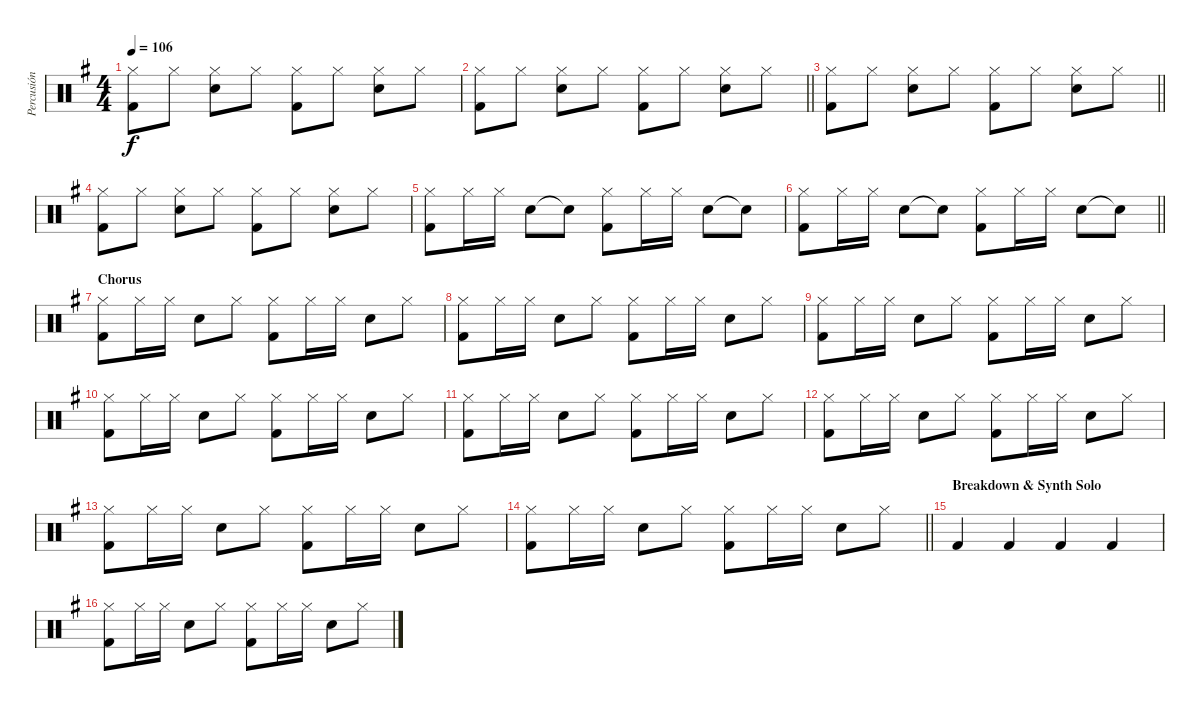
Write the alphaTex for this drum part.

\track ("Percusión" "Percusión") {instrument percussion}
\staff {score}
\articulation defaults
\ts (4 4)
\tempo 106
\clef neutral
\ks g
("Kick (hit) 2" "Hi-Hat (closed)").8{dy f} "Hi-Hat (closed)".8 ("Electric Snare (hit)" "Hi-Hat (closed)").8 "Hi-Hat (closed)".8 ("Kick (hit) 2" "Hi-Hat (closed)").8 "Hi-Hat (closed)".8 ("Electric Snare (hit)" "Hi-Hat (closed)").8 "Hi-Hat (closed)".8 |
\barLineRight lightlight
("Kick (hit) 2" "Hi-Hat (closed)").8 "Hi-Hat (closed)".8 ("Electric Snare (hit)" "Hi-Hat (closed)").8 "Hi-Hat (closed)".8 ("Kick (hit) 2" "Hi-Hat (closed)").8 "Hi-Hat (closed)".8 ("Electric Snare (hit)" "Hi-Hat (closed)").8 "Hi-Hat (closed)".8 |
\barLineRight lightlight
("Kick (hit) 2" "Hi-Hat (closed)").8 "Hi-Hat (closed)".8 ("Electric Snare (hit)" "Hi-Hat (closed)").8 "Hi-Hat (closed)".8 ("Kick (hit) 2" "Hi-Hat (closed)").8 "Hi-Hat (closed)".8 ("Electric Snare (hit)" "Hi-Hat (closed)").8 "Hi-Hat (closed)".8 |
("Kick (hit) 2" "Hi-Hat (closed)").8 "Hi-Hat (closed)".8 ("Electric Snare (hit)" "Hi-Hat (closed)").8 "Hi-Hat (closed)".8 ("Kick (hit) 2" "Hi-Hat (closed)").8 "Hi-Hat (closed)".8 ("Electric Snare (hit)" "Hi-Hat (closed)").8 "Hi-Hat (closed)".8 |
("Kick (hit) 2" "Hi-Hat (closed)").8 "Hi-Hat (closed)".16 "Hi-Hat (closed)".16 "Electric Snare (hit)".8 "Electric Snare (hit)"{t}.8 ("Kick (hit) 2" "Hi-Hat (closed)").8 "Hi-Hat (closed)".16 "Hi-Hat (closed)".16 "Electric Snare (hit)".8 "Electric Snare (hit)"{t}.8 |
\barLineRight lightlight
("Kick (hit) 2" "Hi-Hat (closed)").8 "Hi-Hat (closed)".16 "Hi-Hat (closed)".16 "Electric Snare (hit)".8 "Electric Snare (hit)"{t}.8 ("Kick (hit) 2" "Hi-Hat (closed)").8 "Hi-Hat (closed)".16 "Hi-Hat (closed)".16 "Electric Snare (hit)".8 "Electric Snare (hit)"{t}.8 |
\section ("" "Chorus")
("Kick (hit) 2" "Hi-Hat (closed)").8 "Hi-Hat (closed)".16 "Hi-Hat (closed)".16 "Electric Snare (hit)".8 "Hi-Hat (closed)".8 ("Kick (hit) 2" "Hi-Hat (closed)").8 "Hi-Hat (closed)".16 "Hi-Hat (closed)".16 "Electric Snare (hit)".8 "Hi-Hat (closed)".8 |
("Kick (hit) 2" "Hi-Hat (closed)").8 "Hi-Hat (closed)".16 "Hi-Hat (closed)".16 "Electric Snare (hit)".8 "Hi-Hat (closed)".8 ("Kick (hit) 2" "Hi-Hat (closed)").8 "Hi-Hat (closed)".16 "Hi-Hat (closed)".16 "Electric Snare (hit)".8 "Hi-Hat (closed)".8 |
("Kick (hit) 2" "Hi-Hat (closed)").8 "Hi-Hat (closed)".16 "Hi-Hat (closed)".16 "Electric Snare (hit)".8 "Hi-Hat (closed)".8 ("Kick (hit) 2" "Hi-Hat (closed)").8 "Hi-Hat (closed)".16 "Hi-Hat (closed)".16 "Electric Snare (hit)".8 "Hi-Hat (closed)".8 |
("Kick (hit) 2" "Hi-Hat (closed)").8 "Hi-Hat (closed)".16 "Hi-Hat (closed)".16 "Electric Snare (hit)".8 "Hi-Hat (closed)".8 ("Kick (hit) 2" "Hi-Hat (closed)").8 "Hi-Hat (closed)".16 "Hi-Hat (closed)".16 "Electric Snare (hit)".8 "Hi-Hat (closed)".8 |
("Kick (hit) 2" "Hi-Hat (closed)").8 "Hi-Hat (closed)".16 "Hi-Hat (closed)".16 "Electric Snare (hit)".8 "Hi-Hat (closed)".8 ("Kick (hit) 2" "Hi-Hat (closed)").8 "Hi-Hat (closed)".16 "Hi-Hat (closed)".16 "Electric Snare (hit)".8 "Hi-Hat (closed)".8 |
("Kick (hit) 2" "Hi-Hat (closed)").8 "Hi-Hat (closed)".16 "Hi-Hat (closed)".16 "Electric Snare (hit)".8 "Hi-Hat (closed)".8 ("Kick (hit) 2" "Hi-Hat (closed)").8 "Hi-Hat (closed)".16 "Hi-Hat (closed)".16 "Electric Snare (hit)".8 "Hi-Hat (closed)".8 |
("Kick (hit) 2" "Hi-Hat (closed)").8 "Hi-Hat (closed)".16 "Hi-Hat (closed)".16 "Electric Snare (hit)".8 "Hi-Hat (closed)".8 ("Kick (hit) 2" "Hi-Hat (closed)").8 "Hi-Hat (closed)".16 "Hi-Hat (closed)".16 "Electric Snare (hit)".8 "Hi-Hat (closed)".8 |
\barLineRight lightlight
("Kick (hit) 2" "Hi-Hat (closed)").8 "Hi-Hat (closed)".16 "Hi-Hat (closed)".16 "Electric Snare (hit)".8 "Hi-Hat (closed)".8 ("Kick (hit) 2" "Hi-Hat (closed)").8 "Hi-Hat (closed)".16 "Hi-Hat (closed)".16 "Electric Snare (hit)".8 "Hi-Hat (closed)".8 |
\section ("" "Breakdown & Synth Solo")
"Kick (hit) 2".4 "Kick (hit) 2".4 "Kick (hit) 2".4 "Kick (hit) 2".4 |
("Kick (hit) 2" "Hi-Hat (closed)").8 "Hi-Hat (closed)".16 "Hi-Hat (closed)".16 "Electric Snare (hit)".8 "Hi-Hat (closed)".8 ("Kick (hit) 2" "Hi-Hat (closed)").8 "Hi-Hat (closed)".16 "Hi-Hat (closed)".16 "Electric Snare (hit)".8 "Hi-Hat (closed)".8
